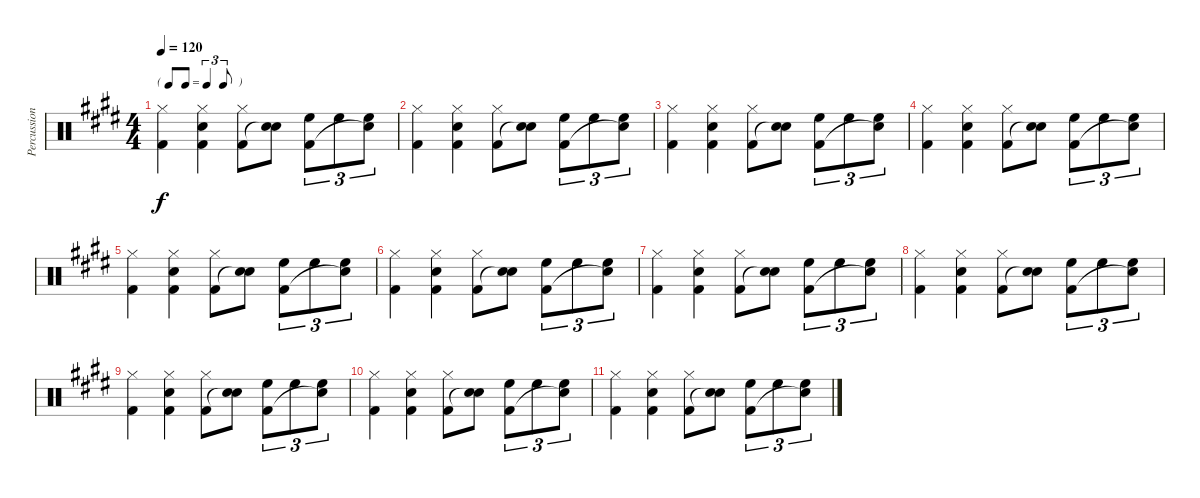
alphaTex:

\track ("Percussion" "Percussion") {instrument percussion}
\staff {score}
\articulation defaults
\ts (4 4)
\tf triplet8th
\tempo 120
\clef neutral
\ks e
("Hi-Hat (closed)" "Kick (hit) 2").4{dy f} ("Hi-Hat (closed)" "Snare (hit) 2" "Kick (hit) 2").4 ("Hi-Hat (closed)" "Kick (hit) 2").8 ("Snare (hit) 2" "Snare (hit)"{t}).8 ("High Floor Tom (hit)" "Kick (hit) 2").8{tu (3 2)} "High Floor Tom (hit)".8{tu (3 2)} ("High Floor Tom (hit)" "Snare (hit)"{t}).8{tu (3 2)} |
("Hi-Hat (closed)" "Kick (hit) 2").4 ("Hi-Hat (closed)" "Snare (hit) 2" "Kick (hit) 2").4 ("Hi-Hat (closed)" "Kick (hit) 2").8 ("Snare (hit) 2" "Snare (hit)"{t}).8 ("High Floor Tom (hit)" "Kick (hit) 2").8{tu (3 2)} "High Floor Tom (hit)".8{tu (3 2)} ("High Floor Tom (hit)" "Snare (hit)"{t}).8{tu (3 2)} |
("Hi-Hat (closed)" "Kick (hit) 2").4 ("Hi-Hat (closed)" "Snare (hit) 2" "Kick (hit) 2").4 ("Hi-Hat (closed)" "Kick (hit) 2").8 ("Snare (hit) 2" "Snare (hit)"{t}).8 ("High Floor Tom (hit)" "Kick (hit) 2").8{tu (3 2)} "High Floor Tom (hit)".8{tu (3 2)} ("High Floor Tom (hit)" "Snare (hit)"{t}).8{tu (3 2)} |
("Hi-Hat (closed)" "Kick (hit) 2").4 ("Hi-Hat (closed)" "Snare (hit) 2" "Kick (hit) 2").4 ("Hi-Hat (closed)" "Kick (hit) 2").8 ("Snare (hit) 2" "Snare (hit)"{t}).8 ("High Floor Tom (hit)" "Kick (hit) 2").8{tu (3 2)} "High Floor Tom (hit)".8{tu (3 2)} ("High Floor Tom (hit)" "Snare (hit)"{t}).8{tu (3 2)} |
("Hi-Hat (closed)" "Kick (hit) 2").4 ("Hi-Hat (closed)" "Snare (hit) 2" "Kick (hit) 2").4 ("Hi-Hat (closed)" "Kick (hit) 2").8 ("Snare (hit) 2" "Snare (hit)"{t}).8 ("High Floor Tom (hit)" "Kick (hit) 2").8{tu (3 2)} "High Floor Tom (hit)".8{tu (3 2)} ("High Floor Tom (hit)" "Snare (hit)"{t}).8{tu (3 2)} |
("Hi-Hat (closed)" "Kick (hit) 2").4 ("Hi-Hat (closed)" "Snare (hit) 2" "Kick (hit) 2").4 ("Hi-Hat (closed)" "Kick (hit) 2").8 ("Snare (hit) 2" "Snare (hit)"{t}).8 ("High Floor Tom (hit)" "Kick (hit) 2").8{tu (3 2)} "High Floor Tom (hit)".8{tu (3 2)} ("High Floor Tom (hit)" "Snare (hit)"{t}).8{tu (3 2)} |
("Hi-Hat (closed)" "Kick (hit) 2").4 ("Hi-Hat (closed)" "Snare (hit) 2" "Kick (hit) 2").4 ("Hi-Hat (closed)" "Kick (hit) 2").8 ("Snare (hit) 2" "Snare (hit)"{t}).8 ("High Floor Tom (hit)" "Kick (hit) 2").8{tu (3 2)} "High Floor Tom (hit)".8{tu (3 2)} ("High Floor Tom (hit)" "Snare (hit)"{t}).8{tu (3 2)} |
("Hi-Hat (closed)" "Kick (hit) 2").4 ("Hi-Hat (closed)" "Snare (hit) 2" "Kick (hit) 2").4 ("Hi-Hat (closed)" "Kick (hit) 2").8 ("Snare (hit) 2" "Snare (hit)"{t}).8 ("High Floor Tom (hit)" "Kick (hit) 2").8{tu (3 2)} "High Floor Tom (hit)".8{tu (3 2)} ("High Floor Tom (hit)" "Snare (hit)"{t}).8{tu (3 2)} |
("Hi-Hat (closed)" "Kick (hit) 2").4 ("Hi-Hat (closed)" "Snare (hit) 2" "Kick (hit) 2").4 ("Hi-Hat (closed)" "Kick (hit) 2").8 ("Snare (hit) 2" "Snare (hit)"{t}).8 ("High Floor Tom (hit)" "Kick (hit) 2").8{tu (3 2)} "High Floor Tom (hit)".8{tu (3 2)} ("High Floor Tom (hit)" "Snare (hit)"{t}).8{tu (3 2)} |
("Hi-Hat (closed)" "Kick (hit) 2").4 ("Hi-Hat (closed)" "Snare (hit) 2" "Kick (hit) 2").4 ("Hi-Hat (closed)" "Kick (hit) 2").8 ("Snare (hit) 2" "Snare (hit)"{t}).8 ("High Floor Tom (hit)" "Kick (hit) 2").8{tu (3 2)} "High Floor Tom (hit)".8{tu (3 2)} ("High Floor Tom (hit)" "Snare (hit)"{t}).8{tu (3 2)} |
("Hi-Hat (closed)" "Kick (hit) 2").4 ("Hi-Hat (closed)" "Snare (hit) 2" "Kick (hit) 2").4 ("Hi-Hat (closed)" "Kick (hit) 2").8 ("Snare (hit) 2" "Snare (hit)"{t}).8 ("High Floor Tom (hit)" "Kick (hit) 2").8{tu (3 2)} "High Floor Tom (hit)".8{tu (3 2)} ("High Floor Tom (hit)" "Snare (hit)"{t}).8{tu (3 2)}
